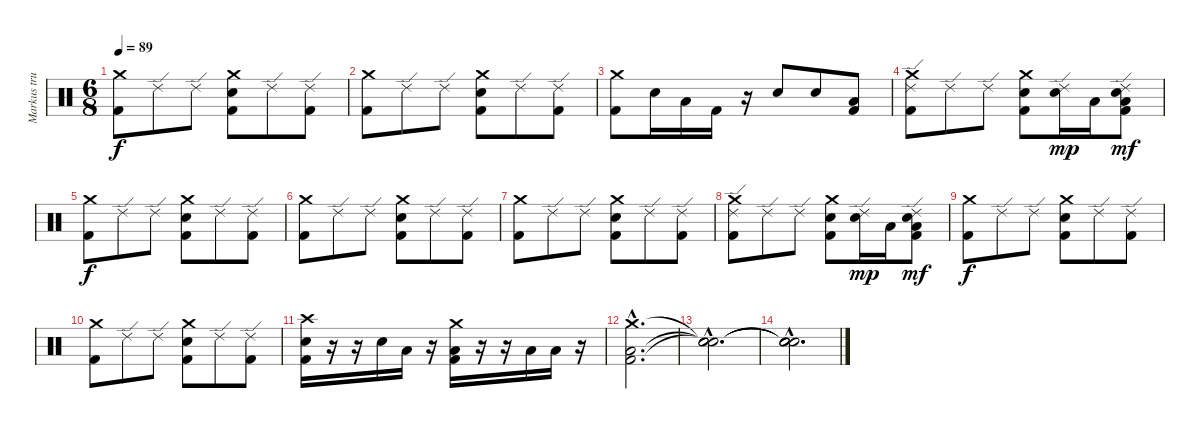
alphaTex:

\track ("Markus trummor" "Markus tru") {instrument percussion}
\staff {score}
\articulation defaults
\ts (6 8)
\tempo 89
\clef neutral
\ks c
("Crash medium (hit)" "Kick (hit) 2").8{dy f} "Ride (edge) 2".8 "Ride (edge) 2".8 ("Crash medium (hit)" "Snare (hit) 2" "Kick (hit) 2").8 "Ride (edge) 2".8 ("Ride (edge) 2" "Kick (hit) 2").8 |
("Crash medium (hit)" "Kick (hit) 2").8 "Ride (edge) 2".8 "Ride (edge) 2".8 ("Crash medium (hit)" "Snare (hit) 2" "Kick (hit) 2").8 "Ride (edge) 2".8 ("Ride (edge) 2" "Kick (hit) 2").8 |
("Crash medium (hit)" "Kick (hit) 2").8 "Snare (hit) 2".16 "Low Tom (hit)".16 "Kick (hit) 2".16 r.16 "Snare (hit) 2".8 "Snare (hit) 2".8 ("Low Floor Tom (hit)" "Kick (hit) 2").8 |
("Crash medium (hit)" "Ride (edge) 2" "Kick (hit) 2").8 "Ride (edge) 2".8 "Ride (edge) 2".8 ("Crash medium (hit)" "Snare (hit) 2" "Kick (hit) 2").8 ("Ride (edge) 2" "Snare (hit) 2").16{dy mp} "Low Tom (hit)".16 ("Ride (edge) 2" "Snare (hit) 2" "Low Floor Tom (hit)" "Kick (hit) 2").8{dy mf} |
("Crash medium (hit)" "Kick (hit) 2").8{dy f} "Ride (edge) 2".8 "Ride (edge) 2".8 ("Crash medium (hit)" "Snare (hit) 2" "Kick (hit) 2").8 "Ride (edge) 2".8 ("Ride (edge) 2" "Kick (hit) 2").8 |
("Crash medium (hit)" "Kick (hit) 2").8 "Ride (edge) 2".8 "Ride (edge) 2".8 ("Crash medium (hit)" "Snare (hit) 2" "Kick (hit) 2").8 "Ride (edge) 2".8 ("Ride (edge) 2" "Kick (hit) 2").8 |
("Crash medium (hit)" "Kick (hit) 2").8 "Ride (edge) 2".8 "Ride (edge) 2".8 ("Crash medium (hit)" "Snare (hit) 2" "Kick (hit) 2").8 "Ride (edge) 2".8 ("Ride (edge) 2" "Kick (hit) 2").8 |
("Crash medium (hit)" "Ride (edge) 2" "Kick (hit) 2").8 "Ride (edge) 2".8 "Ride (edge) 2".8 ("Crash medium (hit)" "Snare (hit) 2" "Kick (hit) 2").8 ("Ride (edge) 2" "Snare (hit) 2").16{dy mp} "Low Tom (hit)".16 ("Ride (edge) 2" "Snare (hit) 2" "Low Floor Tom (hit)" "Kick (hit) 2").8{dy mf} |
("Crash medium (hit)" "Kick (hit) 2").8{dy f} "Ride (edge) 2".8 "Ride (edge) 2".8 ("Crash medium (hit)" "Snare (hit) 2" "Kick (hit) 2").8 "Ride (edge) 2".8 ("Ride (edge) 2" "Kick (hit) 2").8 |
("Crash medium (hit)" "Kick (hit) 2").8 "Ride (edge) 2".8 "Ride (edge) 2".8 ("Crash medium (hit)" "Snare (hit) 2" "Kick (hit) 2").8 "Ride (edge) 2".8 ("Ride (edge) 2" "Kick (hit) 2").8 |
("Crash high (hit)" "Snare (hit) 2" "Kick (hit) 2").16 r.16 r.16 "Snare (hit) 2".16 "Low Tom (hit)".16 r.16 ("Crash medium (hit)" "Low Tom (hit)" "Kick (hit) 2").16 r.16 r.16 "Low Tom (hit)".16 "Low Floor Tom (hit)".16 r.16 |
("Crash medium (hit)"{hac} "Low Floor Tom (hit)"{hac} "Kick (hit) 2"{hac}).2{d} |
("Snare (hit)"{hac t} "Snare (hit)"{hac t} "Snare (hit)"{hac t}).2{d} |
("Snare (hit)"{hac t} "Snare (hit)"{hac t} "Snare (hit)"{hac t} "Snare (hit)"{hac}).2{d}
